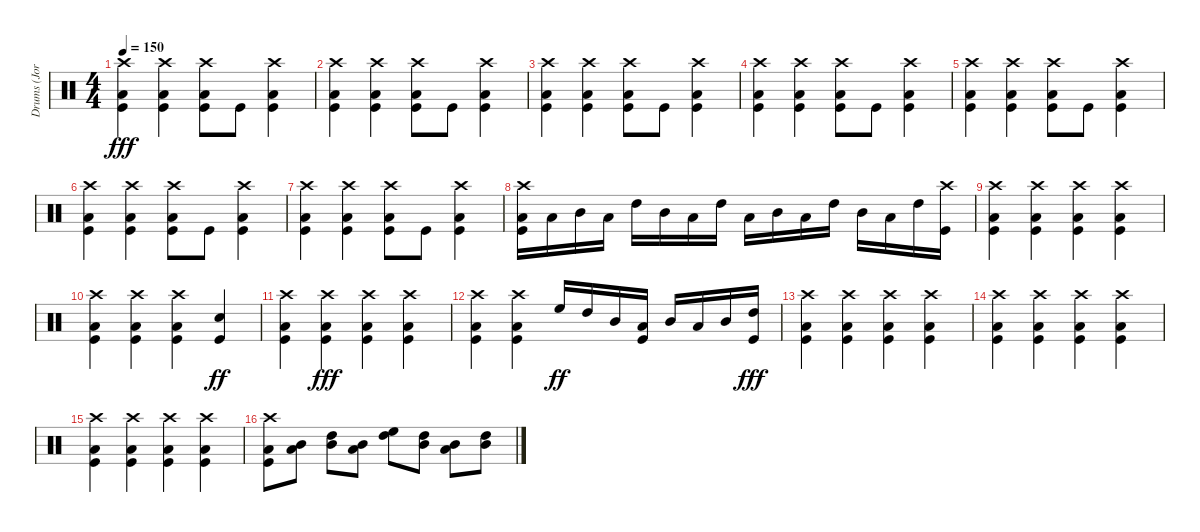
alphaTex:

\track ("Drums (Jordan Hastings)" "Drums (Jor") {instrument percussion}
\staff {score}
\articulation defaults
\ts (4 4)
\tempo 150
\clef neutral
\ks c
("Crash high (hit)" "Low Floor Tom (hit)" "Kick (hit)").4{dy fff} ("Crash high (hit)" "Low Floor Tom (hit)" "Kick (hit)").4 ("Crash high (hit)" "Low Floor Tom (hit)" "Kick (hit)").8 "Kick (hit)".8 ("Crash high (hit)" "Low Floor Tom (hit)" "Kick (hit)").4 |
("Crash high (hit)" "Low Floor Tom (hit)" "Kick (hit)").4 ("Crash high (hit)" "Low Floor Tom (hit)" "Kick (hit)").4 ("Crash high (hit)" "Low Floor Tom (hit)" "Kick (hit)").8 "Kick (hit)".8 ("Crash high (hit)" "Low Floor Tom (hit)" "Kick (hit)").4 |
("Crash high (hit)" "Low Floor Tom (hit)" "Kick (hit)").4 ("Crash high (hit)" "Low Floor Tom (hit)" "Kick (hit)").4 ("Crash high (hit)" "Low Floor Tom (hit)" "Kick (hit)").8 "Kick (hit)".8 ("Crash high (hit)" "Low Floor Tom (hit)" "Kick (hit)").4 |
("Crash high (hit)" "Low Floor Tom (hit)" "Kick (hit)").4 ("Crash high (hit)" "Low Floor Tom (hit)" "Kick (hit)").4 ("Crash high (hit)" "Low Floor Tom (hit)" "Kick (hit)").8 "Kick (hit)".8 ("Crash high (hit)" "Low Floor Tom (hit)" "Kick (hit)").4 |
("Crash high (hit)" "Low Floor Tom (hit)" "Kick (hit)").4 ("Crash high (hit)" "Low Floor Tom (hit)" "Kick (hit)").4 ("Crash high (hit)" "Low Floor Tom (hit)" "Kick (hit)").8 "Kick (hit)".8 ("Crash high (hit)" "Low Floor Tom (hit)" "Kick (hit)").4 |
("Crash high (hit)" "Low Floor Tom (hit)" "Kick (hit)").4 ("Crash high (hit)" "Low Floor Tom (hit)" "Kick (hit)").4 ("Crash high (hit)" "Low Floor Tom (hit)" "Kick (hit)").8 "Kick (hit)".8 ("Crash high (hit)" "Low Floor Tom (hit)" "Kick (hit)").4 |
("Crash high (hit)" "Low Floor Tom (hit)" "Kick (hit)").4 ("Crash high (hit)" "Low Floor Tom (hit)" "Kick (hit)").4 ("Crash high (hit)" "Low Floor Tom (hit)" "Kick (hit)").8 "Kick (hit)".8 ("Crash high (hit)" "Low Floor Tom (hit)" "Kick (hit)").4 |
("Crash high (hit)" "Low Floor Tom (hit)" "Kick (hit)").16 "Low Tom (hit)".16 "Mid Tom (hit)".16 "Low Tom (hit)".16 "High Tom (hit)".16 "Mid Tom (hit)".16 "Low Tom (hit)".16 "High Tom (hit)".16 "Low Tom (hit)".16 "Mid Tom (hit)".16 "Low Tom (hit)".16 "High Tom (hit)".16 "Mid Tom (hit)".16 "Low Tom (hit)".16 "High Tom (hit)".16 ("Crash high (hit)" "Kick (hit)").16 |
("Crash high (hit)" "Low Floor Tom (hit)" "Kick (hit)").4 ("Crash high (hit)" "Low Floor Tom (hit)" "Kick (hit)").4 ("Crash high (hit)" "Low Floor Tom (hit)" "Kick (hit)").4 ("Crash high (hit)" "Low Floor Tom (hit)" "Kick (hit)").4 |
("Crash high (hit)" "Low Floor Tom (hit)" "Kick (hit)").4 ("Crash high (hit)" "Low Floor Tom (hit)" "Kick (hit)").4 ("Crash high (hit)" "Low Floor Tom (hit)" "Kick (hit)").4 ("Snare (hit) 2" "Kick (hit)").4{dy ff} |
("Crash high (hit)" "Low Floor Tom (hit)" "Kick (hit)").4 ("Crash high (hit)" "Low Floor Tom (hit)" "Kick (hit)").4{dy fff} ("Crash high (hit)" "Low Floor Tom (hit)" "Kick (hit)").4 ("Crash high (hit)" "Low Floor Tom (hit)" "Kick (hit)").4 |
("Crash high (hit)" "Low Floor Tom (hit)" "Kick (hit)").4 ("Crash high (hit)" "Low Floor Tom (hit)" "Kick (hit)").4 "High Floor Tom (hit)".16{dy ff} "High Tom (hit)".16 "Mid Tom (hit)".16 ("Low Tom (hit)" "Kick (hit)").16 "Mid Tom (hit)".16 "Low Floor Tom (hit)".16 "Mid Tom (hit)".16 ("High Tom (hit)" "Kick (hit)").16{dy fff} |
("Crash high (hit)" "Low Floor Tom (hit)" "Kick (hit)").4 ("Crash high (hit)" "Low Floor Tom (hit)" "Kick (hit)").4 ("Crash high (hit)" "Low Floor Tom (hit)" "Kick (hit)").4 ("Crash high (hit)" "Low Floor Tom (hit)" "Kick (hit)").4 |
("Crash high (hit)" "Low Floor Tom (hit)" "Kick (hit)").4 ("Crash high (hit)" "Low Floor Tom (hit)" "Kick (hit)").4 ("Crash high (hit)" "Low Floor Tom (hit)" "Kick (hit)").4 ("Crash high (hit)" "Low Floor Tom (hit)" "Kick (hit)").4 |
("Crash high (hit)" "Low Floor Tom (hit)" "Kick (hit)").4 ("Crash high (hit)" "Low Floor Tom (hit)" "Kick (hit)").4 ("Crash high (hit)" "Low Floor Tom (hit)" "Kick (hit)").4 ("Crash high (hit)" "Low Floor Tom (hit)" "Kick (hit)").4 |
("Crash high (hit)" "Low Floor Tom (hit)" "Kick (hit)").8 ("Mid Tom (hit)" "Low Tom (hit)").8 ("Mid Tom (hit)" "High Tom (hit)").8 ("Low Tom (hit)" "Mid Tom (hit)").8 ("High Floor Tom (hit)" "High Tom (hit)").8 ("Mid Tom (hit)" "High Tom (hit)").8 ("Mid Tom (hit)" "Low Tom (hit)").8 ("Mid Tom (hit)" "High Tom (hit)").8
